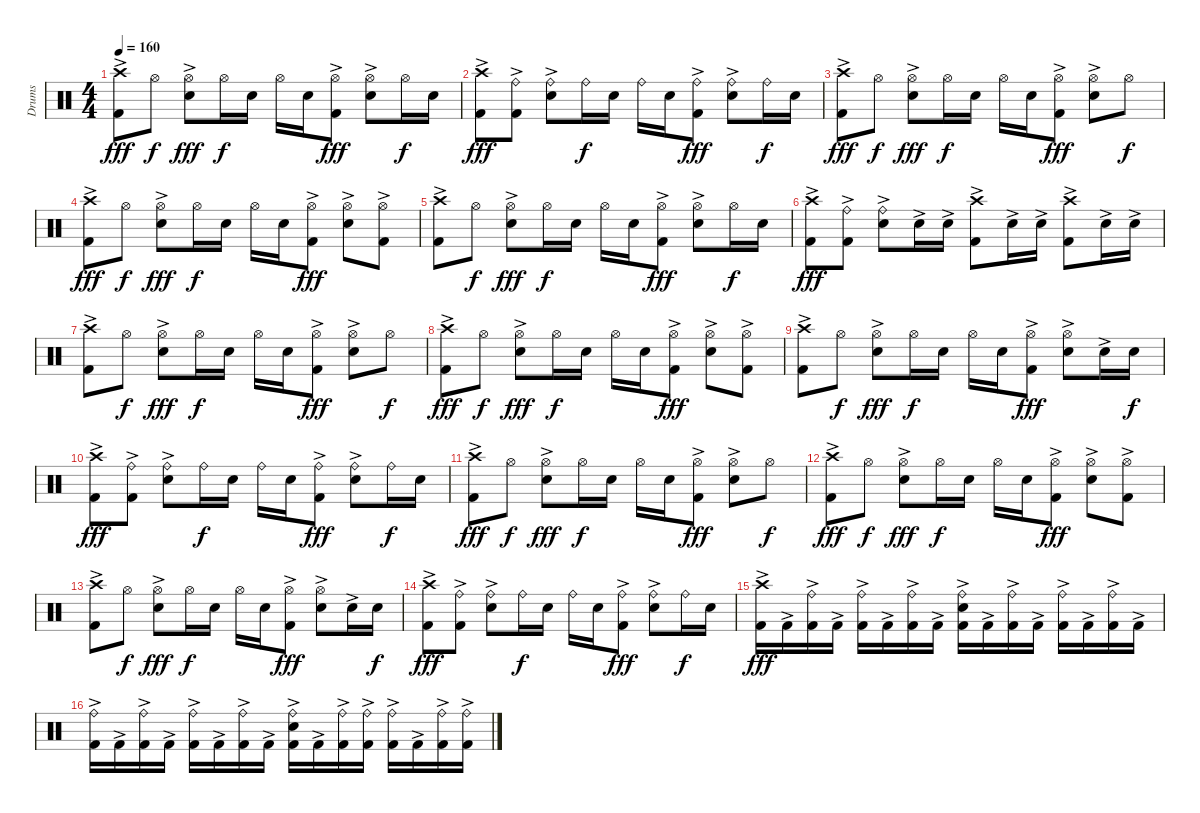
\track ("Drums" "Drums") {instrument percussion}
\staff {score}
\articulation defaults
\ts (4 4)
\tempo 160
\clef neutral
\ks c
("Crash high (hit)" "Kick (hit) 2"{ac}).8{dy fff} "Hi-Hat (open)".8{dy f} ("Hi-Hat (open)" "Snare (hit) 2"{ac}).8{dy fff} "Hi-Hat (open)".16{dy f} "Snare (hit) 2".16 "Hi-Hat (open)".16 "Snare (hit) 2".16 ("Hi-Hat (open)" "Kick (hit) 2"{ac}).8{dy fff} ("Hi-Hat (open)" "Snare (hit) 2"{ac}).8 "Hi-Hat (open)".16{dy f} "Snare (hit) 2".16 |
("Crash high (hit)" "Kick (hit) 2"{ac}).8{dy fff} ("Ride (bell)" "Kick (hit) 2"{ac}).8 ("Ride (bell)" "Snare (hit) 2"{ac}).8 "Ride (bell)".16{dy f} "Snare (hit) 2".16 "Ride (bell)".16 "Snare (hit) 2".16 ("Ride (bell)" "Kick (hit) 2"{ac}).8{dy fff} ("Ride (bell)" "Snare (hit) 2"{ac}).8 "Ride (bell)".16{dy f} "Snare (hit) 2".16 |
("Crash high (hit)" "Kick (hit) 2"{ac}).8{dy fff} "Hi-Hat (open)".8{dy f} ("Hi-Hat (open)" "Snare (hit) 2"{ac}).8{dy fff} "Hi-Hat (open)".16{dy f} "Snare (hit) 2".16 "Hi-Hat (open)".16 "Snare (hit) 2".16 ("Hi-Hat (open)" "Kick (hit) 2"{ac}).8{dy fff} ("Hi-Hat (open)" "Snare (hit) 2"{ac}).8 "Hi-Hat (open)".8{dy f} |
("Crash high (hit)" "Kick (hit) 2"{ac}).8{dy fff} "Hi-Hat (open)".8{dy f} ("Hi-Hat (open)" "Snare (hit) 2"{ac}).8{dy fff} "Hi-Hat (open)".16{dy f} "Snare (hit) 2".16 "Hi-Hat (open)".16 "Snare (hit) 2".16 ("Hi-Hat (open)" "Kick (hit) 2"{ac}).8{dy fff} ("Hi-Hat (open)" "Snare (hit) 2"{ac}).8 ("Hi-Hat (open)" "Kick (hit) 2"{ac}).8 |
("Crash high (hit)" "Kick (hit) 2"{ac}).8 "Hi-Hat (open)".8{dy f} ("Hi-Hat (open)" "Snare (hit) 2"{ac}).8{dy fff} "Hi-Hat (open)".16{dy f} "Snare (hit) 2".16 "Hi-Hat (open)".16 "Snare (hit) 2".16 ("Hi-Hat (open)" "Kick (hit) 2"{ac}).8{dy fff} ("Hi-Hat (open)" "Snare (hit) 2"{ac}).8 "Hi-Hat (open)".16{dy f} "Snare (hit) 2".16 |
("Crash high (hit)" "Kick (hit) 2"{ac}).8{dy fff} ("Ride (bell)" "Kick (hit) 2"{ac}).8 ("Ride (bell)" "Snare (hit) 2"{ac}).8 "Snare (hit) 2"{ac}.16 "Snare (hit) 2"{ac}.16 ("Crash high (hit)" "Kick (hit) 2"{ac}).8 "Snare (hit) 2"{ac}.16 "Snare (hit) 2"{ac}.16 ("Crash high (hit)" "Kick (hit) 2"{ac}).8 "Snare (hit) 2"{ac}.16 "Snare (hit) 2"{ac}.16 |
("Crash high (hit)" "Kick (hit) 2"{ac}).8 "Hi-Hat (open)".8{dy f} ("Hi-Hat (open)" "Snare (hit) 2"{ac}).8{dy fff} "Hi-Hat (open)".16{dy f} "Snare (hit) 2".16 "Hi-Hat (open)".16 "Snare (hit) 2".16 ("Hi-Hat (open)" "Kick (hit) 2"{ac}).8{dy fff} ("Hi-Hat (open)" "Snare (hit) 2"{ac}).8 "Hi-Hat (open)".8{dy f} |
("Crash high (hit)" "Kick (hit) 2"{ac}).8{dy fff} "Hi-Hat (open)".8{dy f} ("Hi-Hat (open)" "Snare (hit) 2"{ac}).8{dy fff} "Hi-Hat (open)".16{dy f} "Snare (hit) 2".16 "Hi-Hat (open)".16 "Snare (hit) 2".16 ("Hi-Hat (open)" "Kick (hit) 2"{ac}).8{dy fff} ("Hi-Hat (open)" "Snare (hit) 2"{ac}).8 ("Hi-Hat (open)" "Kick (hit) 2"{ac}).8 |
("Crash high (hit)" "Kick (hit) 2"{ac}).8 "Hi-Hat (open)".8{dy f} ("Hi-Hat (open)" "Snare (hit) 2"{ac}).8{dy fff} "Hi-Hat (open)".16{dy f} "Snare (hit) 2".16 "Hi-Hat (open)".16 "Snare (hit) 2".16 ("Hi-Hat (open)" "Kick (hit) 2"{ac}).8{dy fff} ("Hi-Hat (open)" "Snare (hit) 2"{ac}).8 "Snare (hit) 2"{ac}.16 "Snare (hit) 2".16{dy f} |
("Crash high (hit)" "Kick (hit) 2"{ac}).8{dy fff} ("Ride (bell)" "Kick (hit) 2"{ac}).8 ("Ride (bell)" "Snare (hit) 2"{ac}).8 "Ride (bell)".16{dy f} "Snare (hit) 2".16 "Ride (bell)".16 "Snare (hit) 2".16 ("Ride (bell)" "Kick (hit) 2"{ac}).8{dy fff} ("Ride (bell)" "Snare (hit) 2"{ac}).8 "Ride (bell)".16{dy f} "Snare (hit) 2".16 |
("Crash high (hit)" "Kick (hit) 2"{ac}).8{dy fff} "Hi-Hat (open)".8{dy f} ("Hi-Hat (open)" "Snare (hit) 2"{ac}).8{dy fff} "Hi-Hat (open)".16{dy f} "Snare (hit) 2".16 "Hi-Hat (open)".16 "Snare (hit) 2".16 ("Hi-Hat (open)" "Kick (hit) 2"{ac}).8{dy fff} ("Hi-Hat (open)" "Snare (hit) 2"{ac}).8 "Hi-Hat (open)".8{dy f} |
("Crash high (hit)" "Kick (hit) 2"{ac}).8{dy fff} "Hi-Hat (open)".8{dy f} ("Hi-Hat (open)" "Snare (hit) 2"{ac}).8{dy fff} "Hi-Hat (open)".16{dy f} "Snare (hit) 2".16 "Hi-Hat (open)".16 "Snare (hit) 2".16 ("Hi-Hat (open)" "Kick (hit) 2"{ac}).8{dy fff} ("Hi-Hat (open)" "Snare (hit) 2"{ac}).8 ("Hi-Hat (open)" "Kick (hit) 2"{ac}).8 |
("Crash high (hit)" "Kick (hit) 2"{ac}).8 "Hi-Hat (open)".8{dy f} ("Hi-Hat (open)" "Snare (hit) 2"{ac}).8{dy fff} "Hi-Hat (open)".16{dy f} "Snare (hit) 2".16 "Hi-Hat (open)".16 "Snare (hit) 2".16 ("Hi-Hat (open)" "Kick (hit) 2"{ac}).8{dy fff} ("Hi-Hat (open)" "Snare (hit) 2"{ac}).8 "Snare (hit) 2"{ac}.16 "Snare (hit) 2".16{dy f} |
("Crash high (hit)" "Kick (hit) 2"{ac}).8{dy fff} ("Ride (bell)" "Kick (hit) 2"{ac}).8 ("Ride (bell)" "Snare (hit) 2"{ac}).8 "Ride (bell)".16{dy f} "Snare (hit) 2".16 "Ride (bell)".16 "Snare (hit) 2".16 ("Ride (bell)" "Kick (hit) 2"{ac}).8{dy fff} ("Ride (bell)" "Snare (hit) 2"{ac}).8 "Ride (bell)".16{dy f} "Snare (hit) 2".16 |
("Crash high (hit)"{ac} "Kick (hit) 2"{ac}).16{dy fff} "Kick (hit) 2"{ac}.16 ("Ride (bell)" "Kick (hit) 2"{ac}).16 "Kick (hit) 2"{ac}.16 ("Ride (bell)"{ac} "Kick (hit) 2"{ac}).16 "Kick (hit) 2"{ac}.16 ("Ride (bell)" "Kick (hit) 2"{ac}).16 "Kick (hit) 2"{ac}.16 ("Ride (bell)"{ac} "Snare (hit) 2"{ac} "Kick (hit) 2"{ac}).16 "Kick (hit) 2"{ac}.16 ("Ride (bell)" "Kick (hit) 2"{ac}).16 "Kick (hit) 2"{ac}.16 ("Ride (bell)"{ac} "Kick (hit) 2"{ac}).16 "Kick (hit) 2"{ac}.16 ("Ride (bell)" "Kick (hit) 2"{ac}).16 "Kick (hit) 2"{ac}.16 |
("Ride (bell)"{ac} "Kick (hit) 2"{ac}).16 "Kick (hit) 2"{ac}.16 ("Ride (bell)" "Kick (hit) 2"{ac}).16 "Kick (hit) 2"{ac}.16 ("Ride (bell)"{ac} "Kick (hit) 2"{ac}).16 "Kick (hit) 2"{ac}.16 ("Ride (bell)" "Kick (hit) 2"{ac}).16 "Kick (hit) 2"{ac}.16 ("Ride (bell)"{ac} "Snare (hit) 2"{ac} "Kick (hit) 2"{ac}).16 "Kick (hit) 2"{ac}.16 ("Ride (bell)"{ac} "Kick (hit) 2"{ac}).16 ("Ride (bell)"{ac} "Kick (hit) 2"{ac}).16 ("Ride (bell)" "Kick (hit) 2"{ac}).16 "Kick (hit) 2"{ac}.16 ("Ride (bell)"{ac} "Kick (hit) 2"{ac}).16 ("Ride (bell)"{ac} "Kick (hit) 2"{ac}).16
